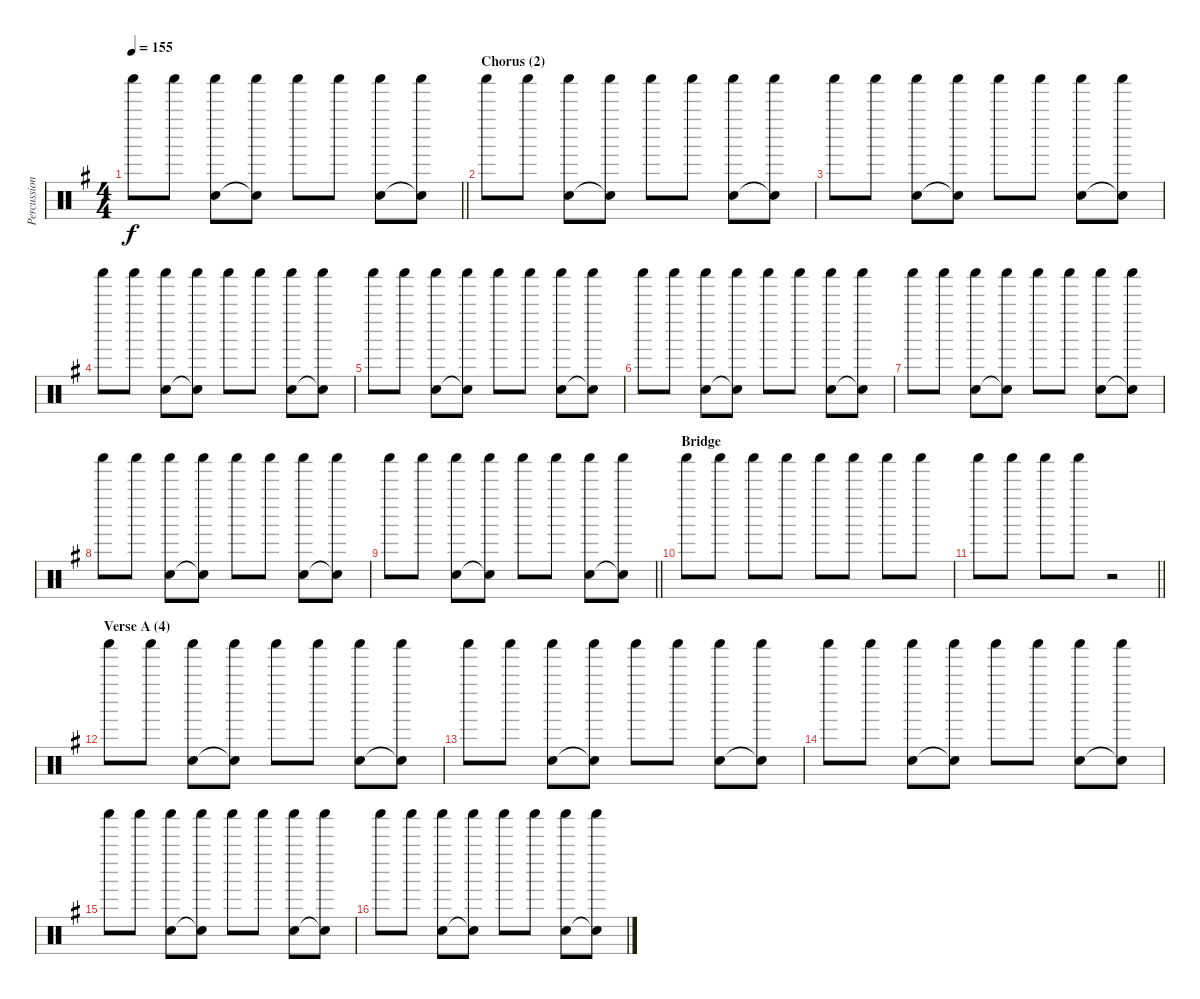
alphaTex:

\track ("Percussion" "Percussion") {instrument percussion}
\staff {score}
\articulation defaults
\ts (4 4)
\tempo 155
\clef neutral
\barLineRight lightlight
\ks eminor "Shaker (hit)".8{dy f} "Shaker (hit)".8
("Hand Clap (hit)" "Shaker (hit)").8 ("Snare (hit)"{t} "Shaker (hit)").8 "Shaker (hit)".8 "Shaker (hit)".8 ("Hand Clap (hit)" "Shaker (hit)").8 ("Snare (hit)"{t} "Shaker (hit)").8 |
\section ("" "Chorus (2)")
"Shaker (hit)".8 "Shaker (hit)".8 ("Hand Clap (hit)" "Shaker (hit)").8 ("Snare (hit)"{t} "Shaker (hit)").8 "Shaker (hit)".8 "Shaker (hit)".8 ("Hand Clap (hit)" "Shaker (hit)").8 ("Snare (hit)"{t} "Shaker (hit)").8 |
"Shaker (hit)".8 "Shaker (hit)".8 ("Hand Clap (hit)" "Shaker (hit)").8 ("Snare (hit)"{t} "Shaker (hit)").8 "Shaker (hit)".8 "Shaker (hit)".8 ("Hand Clap (hit)" "Shaker (hit)").8 ("Snare (hit)"{t} "Shaker (hit)").8 |
"Shaker (hit)".8 "Shaker (hit)".8 ("Hand Clap (hit)" "Shaker (hit)").8 ("Snare (hit)"{t} "Shaker (hit)").8 "Shaker (hit)".8 "Shaker (hit)".8 ("Hand Clap (hit)" "Shaker (hit)").8 ("Snare (hit)"{t} "Shaker (hit)").8 |
"Shaker (hit)".8 "Shaker (hit)".8 ("Hand Clap (hit)" "Shaker (hit)").8 ("Snare (hit)"{t} "Shaker (hit)").8 "Shaker (hit)".8 "Shaker (hit)".8 ("Hand Clap (hit)" "Shaker (hit)").8 ("Snare (hit)"{t} "Shaker (hit)").8 |
"Shaker (hit)".8 "Shaker (hit)".8 ("Hand Clap (hit)" "Shaker (hit)").8 ("Snare (hit)"{t} "Shaker (hit)").8 "Shaker (hit)".8 "Shaker (hit)".8 ("Hand Clap (hit)" "Shaker (hit)").8 ("Snare (hit)"{t} "Shaker (hit)").8 |
"Shaker (hit)".8 "Shaker (hit)".8 ("Hand Clap (hit)" "Shaker (hit)").8 ("Snare (hit)"{t} "Shaker (hit)").8 "Shaker (hit)".8 "Shaker (hit)".8 ("Hand Clap (hit)" "Shaker (hit)").8 ("Snare (hit)"{t} "Shaker (hit)").8 |
"Shaker (hit)".8 "Shaker (hit)".8 ("Hand Clap (hit)" "Shaker (hit)").8 ("Snare (hit)"{t} "Shaker (hit)").8 "Shaker (hit)".8 "Shaker (hit)".8 ("Hand Clap (hit)" "Shaker (hit)").8 ("Snare (hit)"{t} "Shaker (hit)").8 |
\barLineRight lightlight "Shaker (hit)".8 "Shaker (hit)".8
("Hand Clap (hit)" "Shaker (hit)").8 ("Snare (hit)"{t} "Shaker (hit)").8 "Shaker (hit)".8 "Shaker (hit)".8 ("Hand Clap (hit)" "Shaker (hit)").8 ("Snare (hit)"{t} "Shaker (hit)").8 |
\section ("" "Bridge")
"Shaker (hit)".8 "Shaker (hit)".8 "Shaker (hit)".8 "Shaker (hit)".8 "Shaker (hit)".8 "Shaker (hit)".8 "Shaker (hit)".8 "Shaker (hit)".8 |
\barLineRight lightlight "Shaker (hit)".8 "Shaker (hit)".8 "Shaker (hit)".8 "Shaker (hit)".8
r.2 |
\section ("" "Verse A (4)")
"Shaker (hit)".8 "Shaker (hit)".8 ("Hand Clap (hit)" "Shaker (hit)").8 ("Snare (hit)"{t} "Shaker (hit)").8 "Shaker (hit)".8 "Shaker (hit)".8 ("Hand Clap (hit)" "Shaker (hit)").8 ("Snare (hit)"{t} "Shaker (hit)").8 |
"Shaker (hit)".8 "Shaker (hit)".8 ("Hand Clap (hit)" "Shaker (hit)").8 ("Snare (hit)"{t} "Shaker (hit)").8 "Shaker (hit)".8 "Shaker (hit)".8 ("Hand Clap (hit)" "Shaker (hit)").8 ("Snare (hit)"{t} "Shaker (hit)").8 |
"Shaker (hit)".8 "Shaker (hit)".8 ("Hand Clap (hit)" "Shaker (hit)").8 ("Snare (hit)"{t} "Shaker (hit)").8 "Shaker (hit)".8 "Shaker (hit)".8 ("Hand Clap (hit)" "Shaker (hit)").8 ("Snare (hit)"{t} "Shaker (hit)").8 |
"Shaker (hit)".8 "Shaker (hit)".8 ("Hand Clap (hit)" "Shaker (hit)").8 ("Snare (hit)"{t} "Shaker (hit)").8 "Shaker (hit)".8 "Shaker (hit)".8 ("Hand Clap (hit)" "Shaker (hit)").8 ("Snare (hit)"{t} "Shaker (hit)").8 |
"Shaker (hit)".8 "Shaker (hit)".8 ("Hand Clap (hit)" "Shaker (hit)").8 ("Snare (hit)"{t} "Shaker (hit)").8 "Shaker (hit)".8 "Shaker (hit)".8 ("Hand Clap (hit)" "Shaker (hit)").8 ("Snare (hit)"{t} "Shaker (hit)").8
